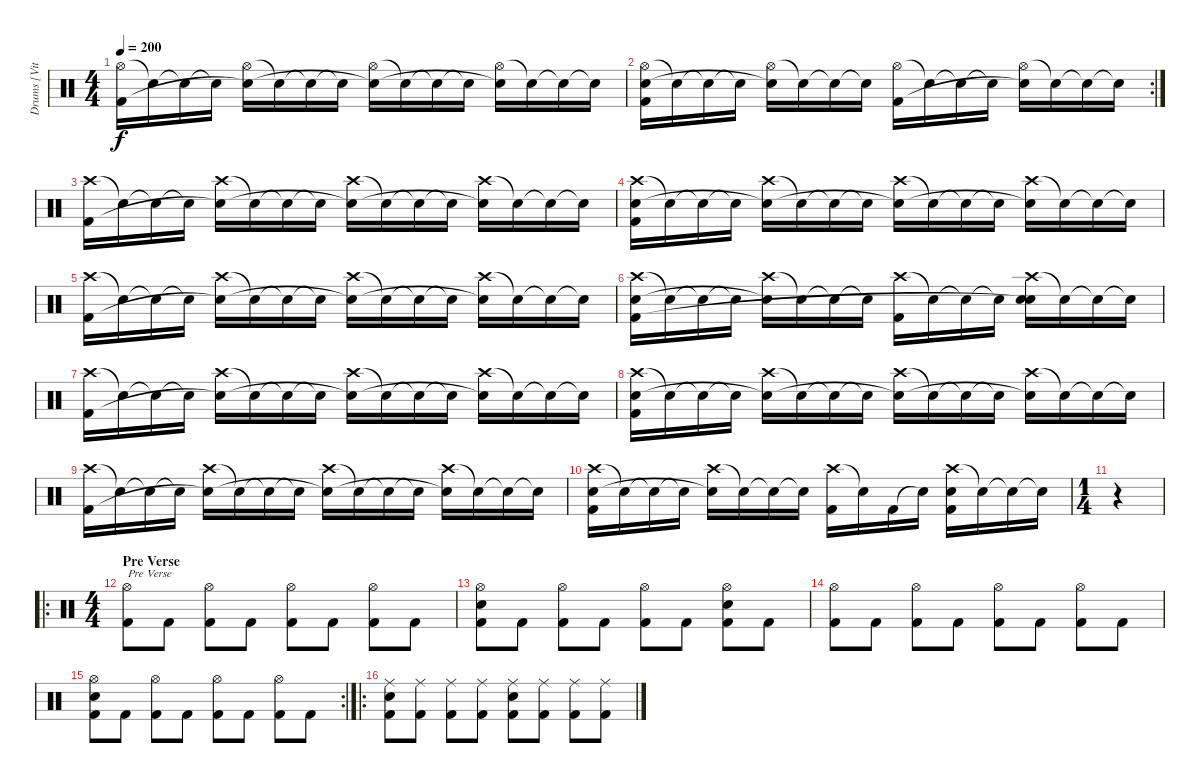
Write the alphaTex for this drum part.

\track ("Drums [Vitek]" "Drums [Vit") {instrument percussion}
\staff {score}
\articulation defaults
\ts (4 4)
\tempo 200
\clef neutral
\ks c
("Hi-Hat (open)" "Kick (hit) 2").16{dy f} "Snare (hit)"{t}.16 "Snare (hit)"{t}.16 "Snare (hit)"{t}.16 ("Hi-Hat (open)" "Snare (hit)"{t}).16 "Snare (hit)"{t}.16 "Snare (hit)"{t}.16 "Snare (hit)"{t}.16 ("Hi-Hat (open)" "Snare (hit)"{t}).16 "Snare (hit)"{t}.16 "Snare (hit)"{t}.16 "Snare (hit)"{t}.16 ("Hi-Hat (open)" "Snare (hit)"{t}).16 "Snare (hit)"{t}.16 "Snare (hit)"{t}.16 "Snare (hit)"{t}.16 |
\rc 2
("Hi-Hat (open)" "Electric Snare (hit)" "Kick (hit) 2").16 "Snare (hit)"{t}.16 "Snare (hit)"{t}.16 "Snare (hit)"{t}.16 ("Hi-Hat (open)" "Snare (hit)"{t}).16 "Snare (hit)"{t}.16 "Snare (hit)"{t}.16 "Snare (hit)"{t}.16 ("Hi-Hat (open)" "Kick (hit) 2").16 "Snare (hit)"{t}.16 "Snare (hit)"{t}.16 "Snare (hit)"{t}.16 ("Hi-Hat (open)" "Snare (hit)"{t}).16 "Snare (hit)"{t}.16 "Snare (hit)"{t}.16 "Snare (hit)"{t}.16 |
("Crash high (hit)" "Kick (hit) 2").16 "Snare (hit)"{t}.16 "Snare (hit)"{t}.16 "Snare (hit)"{t}.16 ("Crash high (hit)" "Snare (hit)"{t}).16 "Snare (hit)"{t}.16 "Snare (hit)"{t}.16 "Snare (hit)"{t}.16 ("Crash high (hit)" "Snare (hit)"{t}).16 "Snare (hit)"{t}.16 "Snare (hit)"{t}.16 "Snare (hit)"{t}.16 ("Crash high (hit)" "Snare (hit)"{t}).16 "Snare (hit)"{t}.16 "Snare (hit)"{t}.16 "Snare (hit)"{t}.16 |
("Crash high (hit)" "Electric Snare (hit)" "Kick (hit) 2").16 "Snare (hit)"{t}.16 "Snare (hit)"{t}.16 "Snare (hit)"{t}.16 ("Crash high (hit)" "Snare (hit)"{t}).16 "Snare (hit)"{t}.16 "Snare (hit)"{t}.16 "Snare (hit)"{t}.16 ("Crash high (hit)" "Snare (hit)"{t}).16 "Snare (hit)"{t}.16 "Snare (hit)"{t}.16 "Snare (hit)"{t}.16 ("Crash high (hit)" "Snare (hit)"{t}).16 "Snare (hit)"{t}.16 "Snare (hit)"{t}.16 "Snare (hit)"{t}.16 |
("Crash high (hit)" "Kick (hit) 2").16 "Snare (hit)"{t}.16 "Snare (hit)"{t}.16 "Snare (hit)"{t}.16 ("Crash high (hit)" "Snare (hit)"{t}).16 "Snare (hit)"{t}.16 "Snare (hit)"{t}.16 "Snare (hit)"{t}.16 ("Crash high (hit)" "Snare (hit)"{t}).16 "Snare (hit)"{t}.16 "Snare (hit)"{t}.16 "Snare (hit)"{t}.16 ("Crash high (hit)" "Snare (hit)"{t}).16 "Snare (hit)"{t}.16 "Snare (hit)"{t}.16 "Snare (hit)"{t}.16 |
("Crash high (hit)" "Electric Snare (hit)" "Kick (hit) 2").16 "Snare (hit)"{t}.16 "Snare (hit)"{t}.16 "Snare (hit)"{t}.16 ("Crash high (hit)" "Snare (hit)"{t}).16 "Snare (hit)"{t}.16 "Snare (hit)"{t}.16 "Snare (hit)"{t}.16 ("Crash high (hit)" "Kick (hit) 2").16 "Snare (hit)"{t}.16 "Snare (hit)"{t}.16 "Snare (hit)"{t}.16 ("Crash high (hit)" "Electric Snare (hit)" "Snare (hit)"{t}).16 "Snare (hit)"{t}.16 "Snare (hit)"{t}.16 "Snare (hit)"{t}.16 |
("Crash high (hit)" "Kick (hit) 2").16 "Snare (hit)"{t}.16 "Snare (hit)"{t}.16 "Snare (hit)"{t}.16 ("Crash high (hit)" "Snare (hit)"{t}).16 "Snare (hit)"{t}.16 "Snare (hit)"{t}.16 "Snare (hit)"{t}.16 ("Crash high (hit)" "Snare (hit)"{t}).16 "Snare (hit)"{t}.16 "Snare (hit)"{t}.16 "Snare (hit)"{t}.16 ("Crash high (hit)" "Snare (hit)"{t}).16 "Snare (hit)"{t}.16 "Snare (hit)"{t}.16 "Snare (hit)"{t}.16 |
("Crash high (hit)" "Electric Snare (hit)" "Kick (hit) 2").16 "Snare (hit)"{t}.16 "Snare (hit)"{t}.16 "Snare (hit)"{t}.16 ("Crash high (hit)" "Snare (hit)"{t}).16 "Snare (hit)"{t}.16 "Snare (hit)"{t}.16 "Snare (hit)"{t}.16 ("Crash high (hit)" "Snare (hit)"{t}).16 "Snare (hit)"{t}.16 "Snare (hit)"{t}.16 "Snare (hit)"{t}.16 ("Crash high (hit)" "Snare (hit)"{t}).16 "Snare (hit)"{t}.16 "Snare (hit)"{t}.16 "Snare (hit)"{t}.16 |
("Crash high (hit)" "Kick (hit) 2").16 "Snare (hit)"{t}.16 "Snare (hit)"{t}.16 "Snare (hit)"{t}.16 ("Crash high (hit)" "Snare (hit)"{t}).16 "Snare (hit)"{t}.16 "Snare (hit)"{t}.16 "Snare (hit)"{t}.16 ("Crash high (hit)" "Snare (hit)"{t}).16 "Snare (hit)"{t}.16 "Snare (hit)"{t}.16 "Snare (hit)"{t}.16 ("Crash high (hit)" "Snare (hit)"{t}).16 "Snare (hit)"{t}.16 "Snare (hit)"{t}.16 "Snare (hit)"{t}.16 |
("Crash high (hit)" "Electric Snare (hit)" "Kick (hit) 2").16 "Snare (hit)"{t}.16 "Snare (hit)"{t}.16 "Snare (hit)"{t}.16 ("Crash high (hit)" "Snare (hit)"{t}).16 "Snare (hit)"{t}.16 "Snare (hit)"{t}.16 "Snare (hit)"{t}.16 ("Crash high (hit)" "Kick (hit) 2").16 "Snare (hit)"{t}.16 "Kick (hit) 2".16 "Snare (hit)"{t}.16 ("Crash high (hit)" "Electric Snare (hit)" "Kick (hit) 2").16 "Snare (hit)"{t}.16 "Snare (hit)"{t}.16 "Snare (hit)"{t}.16 |
\ts (1 4)
r.4 |
\ro
\ts (4 4)
\section ("" "Pre Verse")
("Hi-Hat (open)" "Kick (hit) 2").8{txt "Pre Verse"} "Kick (hit) 2".8 ("Hi-Hat (open)" "Kick (hit) 2").8 "Kick (hit) 2".8 ("Hi-Hat (open)" "Kick (hit) 2").8 "Kick (hit) 2".8 ("Hi-Hat (open)" "Kick (hit) 2").8 "Kick (hit) 2".8 |
("Hi-Hat (open)" "Electric Snare (hit)" "Kick (hit) 2").8 "Kick (hit) 2".8 ("Hi-Hat (open)" "Kick (hit) 2").8 "Kick (hit) 2".8 ("Hi-Hat (open)" "Kick (hit) 2").8 "Kick (hit) 2".8 ("Hi-Hat (open)" "Electric Snare (hit)" "Kick (hit) 2").8 "Kick (hit) 2".8 |
("Hi-Hat (open)" "Kick (hit) 2").8 "Kick (hit) 2".8 ("Hi-Hat (open)" "Kick (hit) 2").8 "Kick (hit) 2".8 ("Hi-Hat (open)" "Kick (hit) 2").8 "Kick (hit) 2".8 ("Hi-Hat (open)" "Kick (hit) 2").8 "Kick (hit) 2".8 |
\rc 2
("Hi-Hat (open)" "Electric Snare (hit)" "Kick (hit) 2").8 "Kick (hit) 2".8 ("Hi-Hat (open)" "Kick (hit) 2").8 "Kick (hit) 2".8 ("Hi-Hat (open)" "Kick (hit) 2").8 "Kick (hit) 2".8 ("Hi-Hat (open)" "Kick (hit) 2").8 "Kick (hit) 2".8 |
\ro
("Ride (middle)" "Electric Snare (hit)" "Kick (hit) 2").8 ("Ride (middle)" "Kick (hit) 2").8 ("Ride (middle)" "Kick (hit) 2").8 ("Ride (middle)" "Kick (hit) 2").8 ("Ride (middle)" "Electric Snare (hit)" "Kick (hit) 2").8 ("Ride (middle)" "Kick (hit) 2").8 ("Ride (middle)" "Kick (hit) 2").8 ("Ride (middle)" "Kick (hit) 2").8
